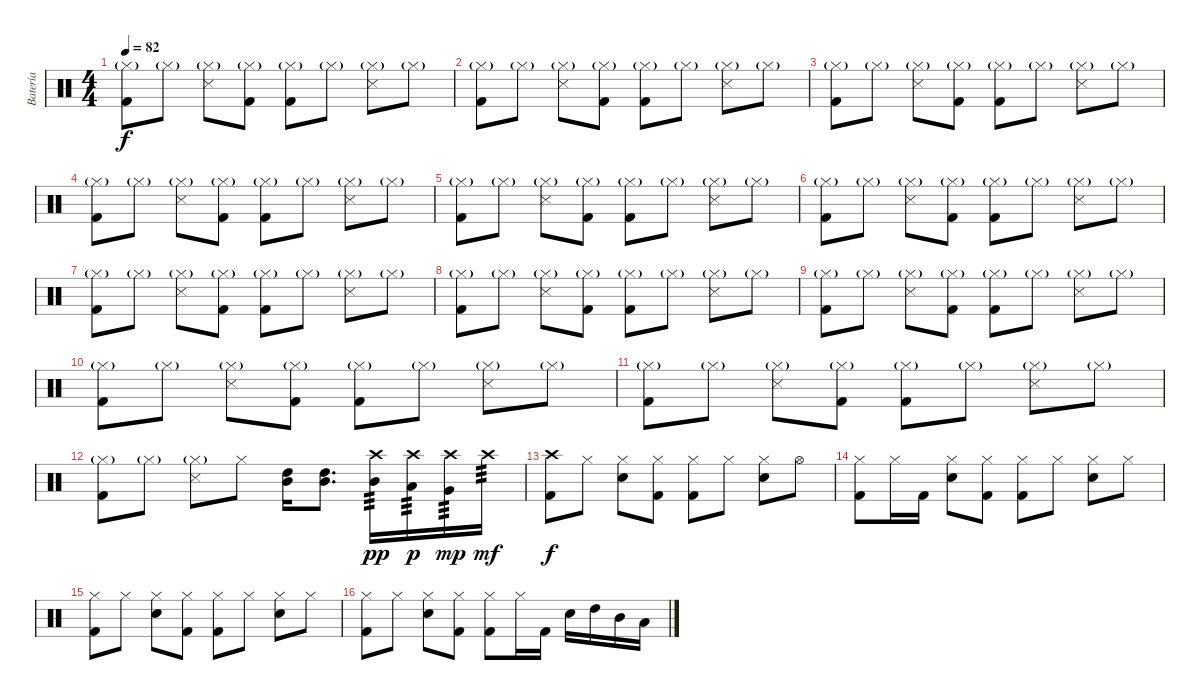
\track ("Batería" "Batería") {instrument percussion}
\staff {score}
\articulation defaults
\ts (4 4)
\tempo 82
\clef neutral
\ks c
("Hi-Hat (closed)"{g} "Kick (hit) 2").8{dy f} "Hi-Hat (closed)"{g}.8 ("Hi-Hat (closed)"{g} "Snare (side stick) 3").8 ("Hi-Hat (closed)"{g} "Kick (hit) 2").8 ("Hi-Hat (closed)"{g} "Kick (hit) 2").8 "Hi-Hat (closed)"{g}.8 ("Hi-Hat (closed)"{g} "Snare (side stick) 3").8 "Hi-Hat (closed)"{g}.8 |
("Hi-Hat (closed)"{g} "Kick (hit) 2").8 "Hi-Hat (closed)"{g}.8 ("Hi-Hat (closed)"{g} "Snare (side stick) 3").8 ("Hi-Hat (closed)"{g} "Kick (hit) 2").8 ("Hi-Hat (closed)"{g} "Kick (hit) 2").8 "Hi-Hat (closed)"{g}.8 ("Hi-Hat (closed)"{g} "Snare (side stick) 3").8 "Hi-Hat (closed)"{g}.8 |
("Hi-Hat (closed)"{g} "Kick (hit) 2").8 "Hi-Hat (closed)"{g}.8 ("Hi-Hat (closed)"{g} "Snare (side stick) 3").8 ("Hi-Hat (closed)"{g} "Kick (hit) 2").8 ("Hi-Hat (closed)"{g} "Kick (hit) 2").8 "Hi-Hat (closed)"{g}.8 ("Hi-Hat (closed)"{g} "Snare (side stick) 3").8 "Hi-Hat (closed)"{g}.8 |
("Hi-Hat (closed)"{g} "Kick (hit) 2").8 "Hi-Hat (closed)"{g}.8 ("Hi-Hat (closed)"{g} "Snare (side stick) 3").8 ("Hi-Hat (closed)"{g} "Kick (hit) 2").8 ("Hi-Hat (closed)"{g} "Kick (hit) 2").8 "Hi-Hat (closed)"{g}.8 ("Hi-Hat (closed)"{g} "Snare (side stick) 3").8 "Hi-Hat (closed)"{g}.8 |
("Hi-Hat (closed)"{g} "Kick (hit) 2").8 "Hi-Hat (closed)"{g}.8 ("Hi-Hat (closed)"{g} "Snare (side stick) 3").8 ("Hi-Hat (closed)"{g} "Kick (hit) 2").8 ("Hi-Hat (closed)"{g} "Kick (hit) 2").8 "Hi-Hat (closed)"{g}.8 ("Hi-Hat (closed)"{g} "Snare (side stick) 3").8 "Hi-Hat (closed)"{g}.8 |
("Hi-Hat (closed)"{g} "Kick (hit) 2").8 "Hi-Hat (closed)"{g}.8 ("Hi-Hat (closed)"{g} "Snare (side stick) 3").8 ("Hi-Hat (closed)"{g} "Kick (hit) 2").8 ("Hi-Hat (closed)"{g} "Kick (hit) 2").8 "Hi-Hat (closed)"{g}.8 ("Hi-Hat (closed)"{g} "Snare (side stick) 3").8 "Hi-Hat (closed)"{g}.8 |
("Hi-Hat (closed)"{g} "Kick (hit) 2").8 "Hi-Hat (closed)"{g}.8 ("Hi-Hat (closed)"{g} "Snare (side stick) 3").8 ("Hi-Hat (closed)"{g} "Kick (hit) 2").8 ("Hi-Hat (closed)"{g} "Kick (hit) 2").8 "Hi-Hat (closed)"{g}.8 ("Hi-Hat (closed)"{g} "Snare (side stick) 3").8 "Hi-Hat (closed)"{g}.8 |
("Hi-Hat (closed)"{g} "Kick (hit) 2").8 "Hi-Hat (closed)"{g}.8 ("Hi-Hat (closed)"{g} "Snare (side stick) 3").8 ("Hi-Hat (closed)"{g} "Kick (hit) 2").8 ("Hi-Hat (closed)"{g} "Kick (hit) 2").8 "Hi-Hat (closed)"{g}.8 ("Hi-Hat (closed)"{g} "Snare (side stick) 3").8 "Hi-Hat (closed)"{g}.8 |
("Hi-Hat (closed)"{g} "Kick (hit) 2").8 "Hi-Hat (closed)"{g}.8 ("Hi-Hat (closed)"{g} "Snare (side stick) 3").8 ("Hi-Hat (closed)"{g} "Kick (hit) 2").8 ("Hi-Hat (closed)"{g} "Kick (hit) 2").8 "Hi-Hat (closed)"{g}.8 ("Hi-Hat (closed)"{g} "Snare (side stick) 3").8 "Hi-Hat (closed)"{g}.8 |
("Hi-Hat (closed)"{g} "Kick (hit) 2").8 "Hi-Hat (closed)"{g}.8 ("Hi-Hat (closed)"{g} "Snare (side stick) 3").8 ("Hi-Hat (closed)"{g} "Kick (hit) 2").8 ("Hi-Hat (closed)"{g} "Kick (hit) 2").8 "Hi-Hat (closed)"{g}.8 ("Hi-Hat (closed)"{g} "Snare (side stick) 3").8 "Hi-Hat (closed)"{g}.8 |
("Hi-Hat (closed)"{g} "Kick (hit) 2").8 "Hi-Hat (closed)"{g}.8 ("Hi-Hat (closed)"{g} "Snare (side stick) 3").8 ("Hi-Hat (closed)"{g} "Kick (hit) 2").8 ("Hi-Hat (closed)"{g} "Kick (hit) 2").8 "Hi-Hat (closed)"{g}.8 ("Hi-Hat (closed)"{g} "Snare (side stick) 3").8 "Hi-Hat (closed)"{g}.8 |
("Hi-Hat (closed)"{g} "Kick (hit) 2").8 "Hi-Hat (closed)"{g}.8 ("Hi-Hat (closed)"{g} "Snare (side stick) 3").8 "Hi-Hat (closed)".8 ("High Tom (hit)" "Mid Tom (hit)").16 ("High Tom (hit)" "Mid Tom (hit)").8{d} ("Crash high (hit)" "Mid Tom (hit)").16{tp 3 dy pp} ("Crash high (hit)" "Low Tom (hit)").16{tp 3 dy p} ("Crash high (hit)" "Very Low Tom (hit)").16{tp 3 dy mp} "Crash high (hit)".16{tp 3 dy mf} |
("Crash high (hit)" "Kick (hit) 2").8{dy f} "Hi-Hat (closed)".8 ("Hi-Hat (closed)" "Snare (hit) 2").8 ("Hi-Hat (closed)" "Kick (hit) 2").8 ("Hi-Hat (closed)" "Kick (hit) 2").8 "Hi-Hat (closed)".8 ("Hi-Hat (closed)" "Snare (hit) 2").8 "Hi-Hat (open)".8 |
("Hi-Hat (closed)" "Kick (hit) 2").8 "Hi-Hat (closed)".16 "Kick (hit) 2".16 ("Hi-Hat (closed)" "Snare (hit) 2").8 ("Hi-Hat (closed)" "Kick (hit) 2").8 ("Hi-Hat (closed)" "Kick (hit) 2").8 "Hi-Hat (closed)".8 ("Hi-Hat (closed)" "Snare (hit) 2").8 "Hi-Hat (closed)".8 |
("Hi-Hat (closed)" "Kick (hit) 2").8 "Hi-Hat (closed)".8 ("Hi-Hat (closed)" "Snare (hit) 2").8 ("Hi-Hat (closed)" "Kick (hit) 2").8 ("Hi-Hat (closed)" "Kick (hit) 2").8 "Hi-Hat (closed)".8 ("Hi-Hat (closed)" "Snare (hit) 2").8 "Hi-Hat (closed)".8 |
("Hi-Hat (closed)" "Kick (hit) 2").8 "Hi-Hat (closed)".8 ("Hi-Hat (closed)" "Snare (hit) 2").8 ("Hi-Hat (closed)" "Kick (hit) 2").8 ("Hi-Hat (closed)" "Kick (hit) 2").8 "Hi-Hat (closed)".16 "Kick (hit) 2".16 "Snare (hit) 2".16 "High Tom (hit)".16 "Mid Tom (hit)".16 "Low Tom (hit)".16
